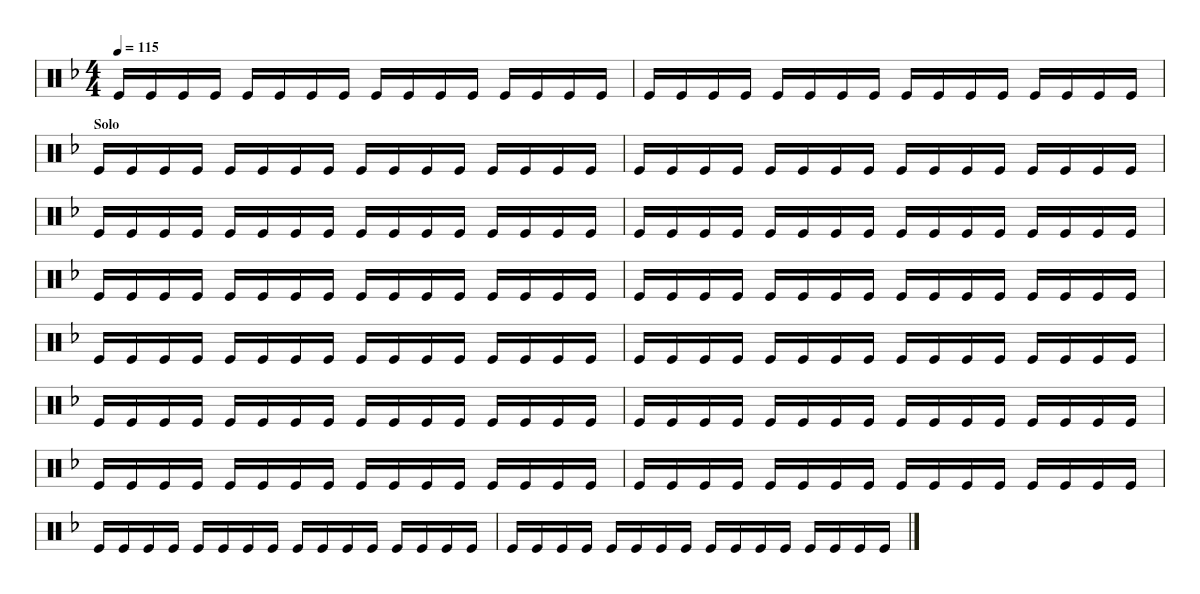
\hideDynamics
\bracketExtendMode groupsimilarinstruments
\singleTrackTrackNamePolicy hidden
\multiTrackTrackNamePolicy hidden
\firstSystemTrackNameOrientation horizontal
\otherSystemsTrackNameOrientation horizontal
\chordDiagramsInScore
\defaultBarNumberDisplay Hide
\track ("Tambourine" "Tamb.") {instrument percussion}
\staff {score}
\articulation defaults
\ts (4 4)
\tempo 115
\clef neutral
\ks dminor "Kick (hit)".16{dy f} "Kick (hit)".16 "Kick (hit)".16 "Kick (hit)".16 "Kick (hit)".16 "Kick (hit)".16 "Kick (hit)".16 "Kick (hit)".16 "Kick (hit)".16 "Kick (hit)".16 "Kick (hit)".16 "Kick (hit)".16 "Kick (hit)".16 "Kick (hit)".16 "Kick (hit)".16 "Kick (hit)".16
|
"Kick (hit)".16 "Kick (hit)".16 "Kick (hit)".16 "Kick (hit)".16 "Kick (hit)".16 "Kick (hit)".16 "Kick (hit)".16 "Kick (hit)".16 "Kick (hit)".16 "Kick (hit)".16 "Kick (hit)".16 "Kick (hit)".16 "Kick (hit)".16 "Kick (hit)".16 "Kick (hit)".16 "Kick (hit)".16 |
\section ("" "Solo")
"Kick (hit)".16 "Kick (hit)".16 "Kick (hit)".16 "Kick (hit)".16 "Kick (hit)".16 "Kick (hit)".16 "Kick (hit)".16 "Kick (hit)".16 "Kick (hit)".16 "Kick (hit)".16 "Kick (hit)".16 "Kick (hit)".16 "Kick (hit)".16 "Kick (hit)".16 "Kick (hit)".16 "Kick (hit)".16 |
"Kick (hit)".16 "Kick (hit)".16 "Kick (hit)".16 "Kick (hit)".16 "Kick (hit)".16 "Kick (hit)".16 "Kick (hit)".16 "Kick (hit)".16 "Kick (hit)".16 "Kick (hit)".16 "Kick (hit)".16 "Kick (hit)".16 "Kick (hit)".16 "Kick (hit)".16 "Kick (hit)".16 "Kick (hit)".16 |
"Kick (hit)".16 "Kick (hit)".16 "Kick (hit)".16 "Kick (hit)".16 "Kick (hit)".16 "Kick (hit)".16 "Kick (hit)".16 "Kick (hit)".16 "Kick (hit)".16 "Kick (hit)".16 "Kick (hit)".16 "Kick (hit)".16 "Kick (hit)".16 "Kick (hit)".16 "Kick (hit)".16 "Kick (hit)".16 |
"Kick (hit)".16 "Kick (hit)".16 "Kick (hit)".16 "Kick (hit)".16 "Kick (hit)".16 "Kick (hit)".16 "Kick (hit)".16 "Kick (hit)".16 "Kick (hit)".16 "Kick (hit)".16 "Kick (hit)".16 "Kick (hit)".16 "Kick (hit)".16 "Kick (hit)".16 "Kick (hit)".16 "Kick (hit)".16 |
"Kick (hit)".16 "Kick (hit)".16 "Kick (hit)".16 "Kick (hit)".16 "Kick (hit)".16 "Kick (hit)".16 "Kick (hit)".16 "Kick (hit)".16 "Kick (hit)".16 "Kick (hit)".16 "Kick (hit)".16 "Kick (hit)".16 "Kick (hit)".16 "Kick (hit)".16 "Kick (hit)".16 "Kick (hit)".16 |
"Kick (hit)".16 "Kick (hit)".16 "Kick (hit)".16 "Kick (hit)".16 "Kick (hit)".16 "Kick (hit)".16 "Kick (hit)".16 "Kick (hit)".16 "Kick (hit)".16 "Kick (hit)".16 "Kick (hit)".16 "Kick (hit)".16 "Kick (hit)".16 "Kick (hit)".16 "Kick (hit)".16 "Kick (hit)".16 |
"Kick (hit)".16 "Kick (hit)".16 "Kick (hit)".16 "Kick (hit)".16 "Kick (hit)".16 "Kick (hit)".16 "Kick (hit)".16 "Kick (hit)".16 "Kick (hit)".16 "Kick (hit)".16 "Kick (hit)".16 "Kick (hit)".16 "Kick (hit)".16 "Kick (hit)".16 "Kick (hit)".16 "Kick (hit)".16 |
"Kick (hit)".16 "Kick (hit)".16 "Kick (hit)".16 "Kick (hit)".16 "Kick (hit)".16 "Kick (hit)".16 "Kick (hit)".16 "Kick (hit)".16 "Kick (hit)".16 "Kick (hit)".16 "Kick (hit)".16 "Kick (hit)".16 "Kick (hit)".16 "Kick (hit)".16 "Kick (hit)".16 "Kick (hit)".16 |
"Kick (hit)".16 "Kick (hit)".16 "Kick (hit)".16 "Kick (hit)".16 "Kick (hit)".16 "Kick (hit)".16 "Kick (hit)".16 "Kick (hit)".16 "Kick (hit)".16 "Kick (hit)".16 "Kick (hit)".16 "Kick (hit)".16 "Kick (hit)".16 "Kick (hit)".16 "Kick (hit)".16 "Kick (hit)".16 |
"Kick (hit)".16 "Kick (hit)".16 "Kick (hit)".16 "Kick (hit)".16 "Kick (hit)".16 "Kick (hit)".16 "Kick (hit)".16 "Kick (hit)".16 "Kick (hit)".16 "Kick (hit)".16 "Kick (hit)".16 "Kick (hit)".16 "Kick (hit)".16 "Kick (hit)".16 "Kick (hit)".16 "Kick (hit)".16 |
"Kick (hit)".16 "Kick (hit)".16 "Kick (hit)".16 "Kick (hit)".16 "Kick (hit)".16 "Kick (hit)".16 "Kick (hit)".16 "Kick (hit)".16 "Kick (hit)".16 "Kick (hit)".16 "Kick (hit)".16 "Kick (hit)".16 "Kick (hit)".16 "Kick (hit)".16 "Kick (hit)".16 "Kick (hit)".16 |
"Kick (hit)".16 "Kick (hit)".16 "Kick (hit)".16 "Kick (hit)".16 "Kick (hit)".16 "Kick (hit)".16 "Kick (hit)".16 "Kick (hit)".16 "Kick (hit)".16 "Kick (hit)".16 "Kick (hit)".16 "Kick (hit)".16 "Kick (hit)".16 "Kick (hit)".16 "Kick (hit)".16 "Kick (hit)".16 |
"Kick (hit)".16 "Kick (hit)".16 "Kick (hit)".16 "Kick (hit)".16 "Kick (hit)".16 "Kick (hit)".16 "Kick (hit)".16 "Kick (hit)".16 "Kick (hit)".16 "Kick (hit)".16 "Kick (hit)".16 "Kick (hit)".16 "Kick (hit)".16 "Kick (hit)".16 "Kick (hit)".16 "Kick (hit)".16 |
"Kick (hit)".16 "Kick (hit)".16 "Kick (hit)".16 "Kick (hit)".16 "Kick (hit)".16 "Kick (hit)".16 "Kick (hit)".16 "Kick (hit)".16 "Kick (hit)".16 "Kick (hit)".16 "Kick (hit)".16 "Kick (hit)".16 "Kick (hit)".16 "Kick (hit)".16 "Kick (hit)".16 "Kick (hit)".16
